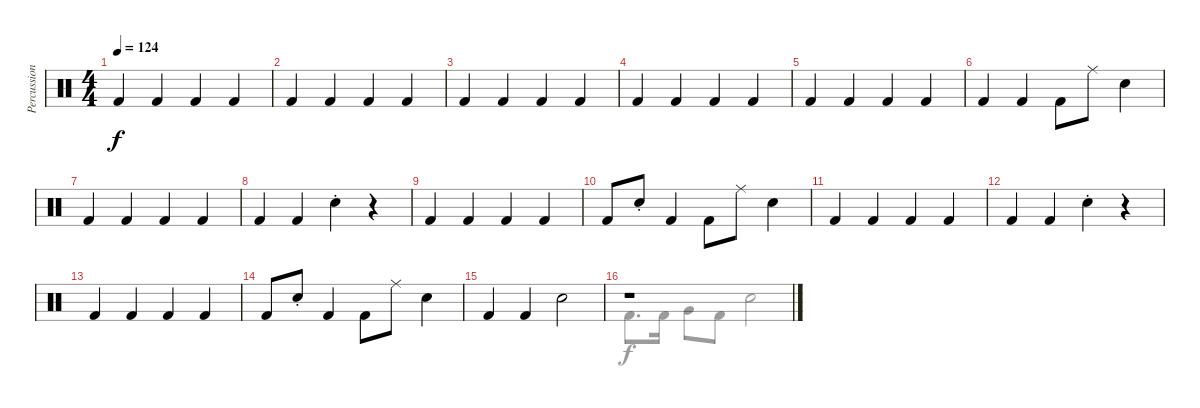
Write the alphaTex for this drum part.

\track ("Percussion" "Percussion") {instrument percussion}
\staff {score}
\articulation defaults
\voice
\ts (4 4)
\tempo 124
\clef neutral
\ks c "Kick (hit) 2".4{dy f} "Kick (hit) 2".4 "Kick (hit) 2".4 "Kick (hit) 2".4
|
"Kick (hit) 2".4 "Kick (hit) 2".4 "Kick (hit) 2".4 "Kick (hit) 2".4 |
"Kick (hit) 2".4 "Kick (hit) 2".4 "Kick (hit) 2".4 "Kick (hit) 2".4 |
"Kick (hit) 2".4 "Kick (hit) 2".4 "Kick (hit) 2".4 "Kick (hit) 2".4 |
"Kick (hit) 2".4 "Kick (hit) 2".4 "Kick (hit) 2".4 "Kick (hit) 2".4 |
"Kick (hit) 2".4 "Kick (hit) 2".4 "Kick (hit) 2".8 "Ride (middle)".8 "Snare (hit) 2".4 |
"Kick (hit) 2".4 "Kick (hit) 2".4 "Kick (hit) 2".4 "Kick (hit) 2".4 |
"Kick (hit) 2".4 "Kick (hit) 2".4 "Snare (hit) 2"{st}.4 r.4 |
"Kick (hit) 2".4 "Kick (hit) 2".4 "Kick (hit) 2".4 "Kick (hit) 2".4 |
"Kick (hit) 2".8 "Snare (hit) 2"{st}.8 "Kick (hit) 2".4 "Kick (hit) 2".8 "Ride (middle)".8 "Snare (hit) 2".4 |
"Kick (hit) 2".4 "Kick (hit) 2".4 "Kick (hit) 2".4 "Kick (hit) 2".4 |
"Kick (hit) 2".4 "Kick (hit) 2".4 "Snare (hit) 2"{st}.4 r.4 |
"Kick (hit) 2".4 "Kick (hit) 2".4 "Kick (hit) 2".4 "Kick (hit) 2".4 |
"Kick (hit) 2".8 "Snare (hit) 2"{st}.8 "Kick (hit) 2".4 "Kick (hit) 2".8 "Ride (middle)".8 "Snare (hit) 2".4 |
"Kick (hit) 2".4 "Kick (hit) 2".4 "Snare (hit) 2".2 |
r.1
\voice
\clef neutral
\ottava regular
\simile none
\ks c
|
|
|
|
|
|
|
|
|
|
|
|
|
|
|
"Kick (hit) 2".8{d} "Kick (hit) 2".16 "Very Low Tom (hit)".8 "Kick (hit) 2".8 "Snare (hit) 2".2
